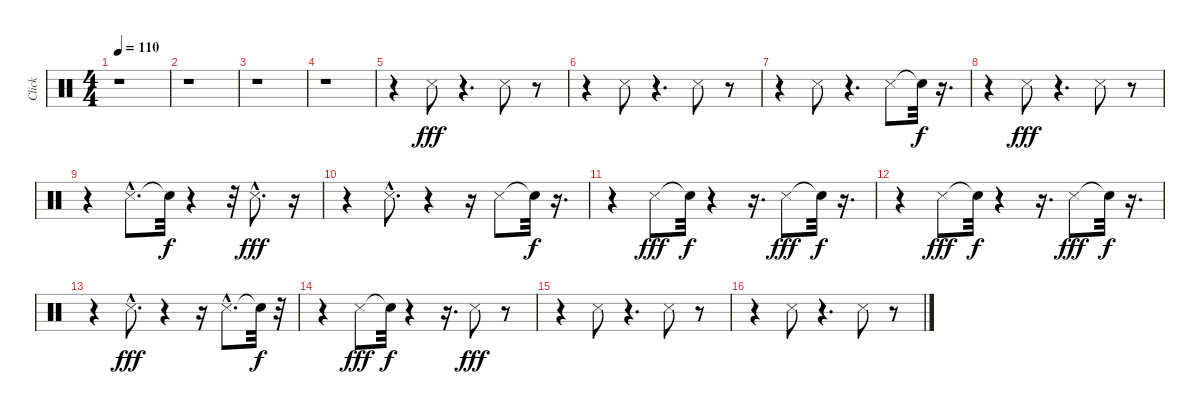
\track ("Click" "Click") {instrument percussion}
\staff {score}
\articulation defaults
\ts (4 4)
\tempo 110
\clef neutral
\ks c
r.1{dy fff} |
r.1 |
r.1 |
r.1 |
r.4 "Snare (side stick) 3".8 r.4{d} "Snare (side stick) 3".8 r.8 |
r.4 "Snare (side stick) 3".8 r.4{d} "Snare (side stick) 3".8 r.8 |
r.4 "Snare (side stick) 3".8 r.4{d} "Snare (side stick) 3".8 "Snare (hit)"{t}.32{dy f} r.16{d} |
r.4 "Snare (side stick) 3".8{dy fff} r.4{d} "Snare (side stick) 3".8 r.8 |
r.4 "Snare (side stick) 3"{hac}.8{d} "Snare (hit)"{t}.32{dy f} r.4 r.32 "Snare (side stick) 3"{hac}.8{d dy fff} r.16 |
r.4 "Snare (side stick) 3"{hac}.8{d} r.4 r.16 "Snare (side stick) 3".8 "Snare (hit)"{t}.32{dy f} r.16{d} |
r.4 "Snare (side stick) 3".8{dy fff} "Snare (hit)"{t}.32{dy f} r.4 r.16{d} "Snare (side stick) 3".8{dy fff} "Snare (hit)"{t}.32{dy f} r.16{d} |
r.4 "Snare (side stick) 3".8{dy fff} "Snare (hit)"{t}.32{dy f} r.4 r.16{d} "Snare (side stick) 3".8{dy fff} "Snare (hit)"{t}.32{dy f} r.16{d} |
r.4 "Snare (side stick) 3"{hac}.8{d dy fff} r.4 r.16 "Snare (side stick) 3"{hac}.8{d} "Snare (hit)"{t}.32{dy f} r.32 |
r.4 "Snare (side stick) 3".8{dy fff} "Snare (hit)"{t}.32{dy f} r.4 r.16{d} "Snare (side stick) 3".8{dy fff} r.8 |
r.4 "Snare (side stick) 3".8 r.4{d} "Snare (side stick) 3".8 r.8 |
r.4 "Snare (side stick) 3".8 r.4{d} "Snare (side stick) 3".8 r.8
